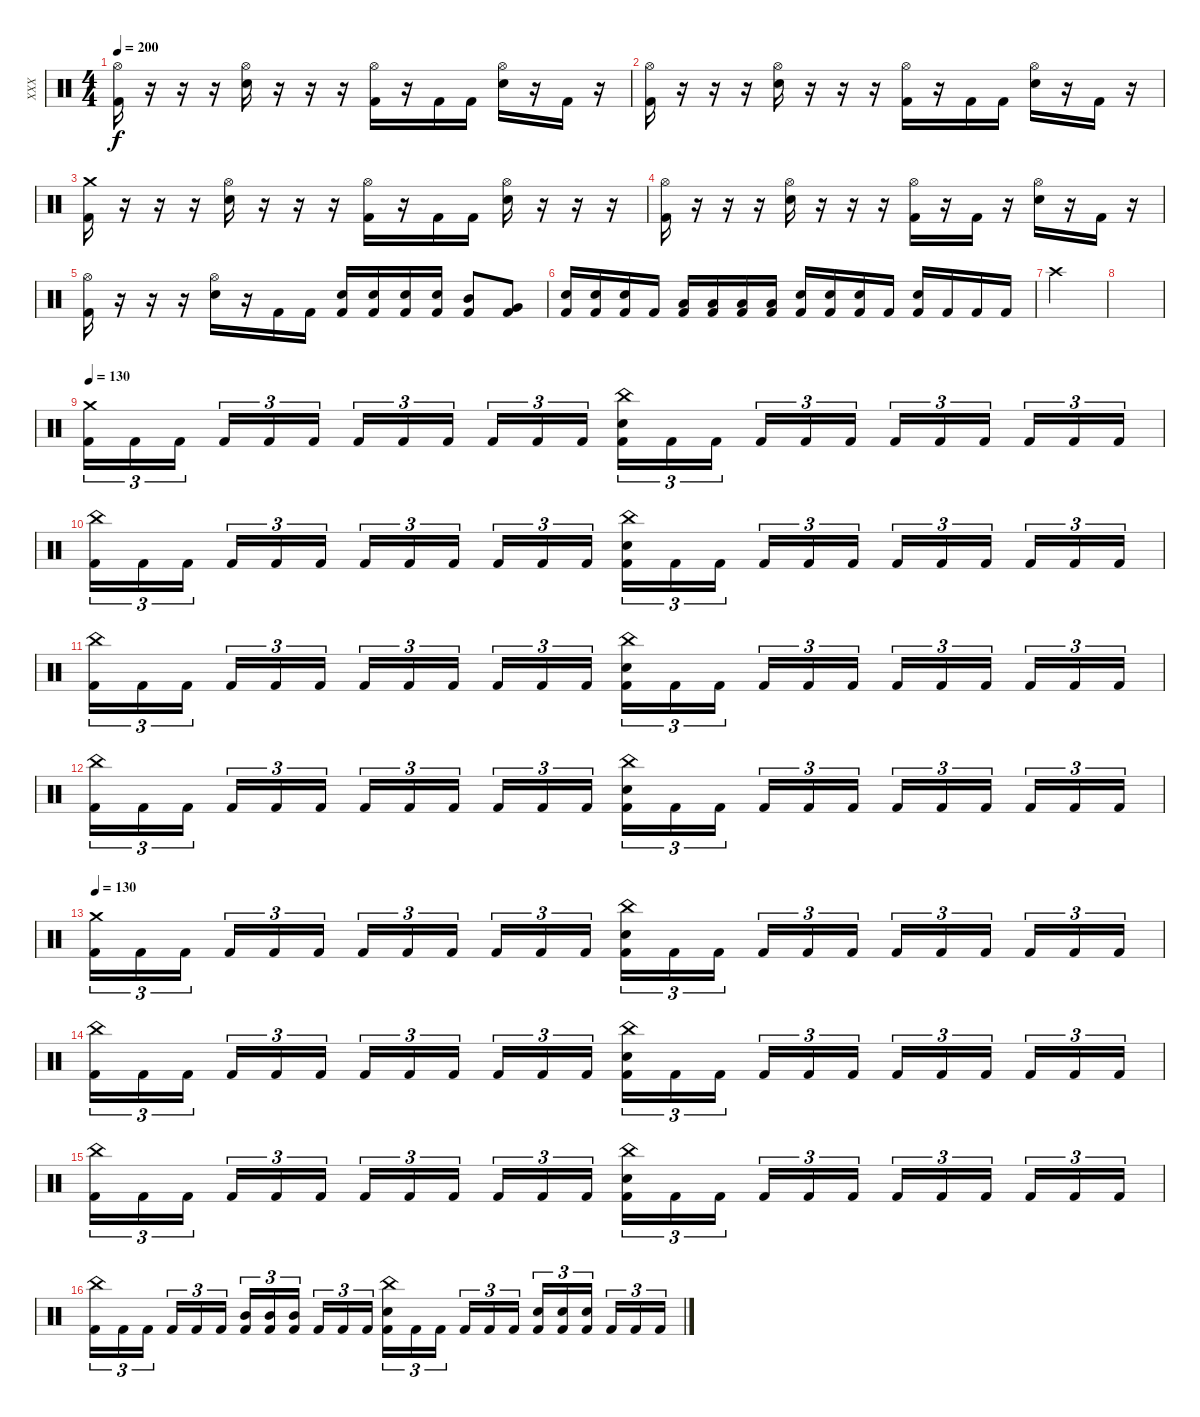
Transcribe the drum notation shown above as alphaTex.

\track ("XXX" "XXX") {instrument percussion}
\staff {score}
\articulation defaults
\ts (4 4)
\tempo 200
\clef neutral
\ks c
("Hi-Hat (open)" "Kick (hit) 2").16{dy f} r.16 r.16 r.16 ("Hi-Hat (open)" "Electric Snare (hit)").16 r.16 r.16 r.16 ("Hi-Hat (open)" "Kick (hit) 2").16 r.16 "Kick (hit) 2".16 "Kick (hit) 2".16 ("Hi-Hat (open)" "Electric Snare (hit)").16 r.16 "Kick (hit) 2".16 r.16 |
("Hi-Hat (open)" "Kick (hit) 2").16 r.16 r.16 r.16 ("Hi-Hat (open)" "Electric Snare (hit)").16 r.16 r.16 r.16 ("Hi-Hat (open)" "Kick (hit) 2").16 r.16 "Kick (hit) 2".16 "Kick (hit) 2".16 ("Hi-Hat (open)" "Electric Snare (hit)").16 r.16 "Kick (hit) 2".16 r.16 |
("Crash medium (hit)" "Kick (hit) 2").16 r.16 r.16 r.16 ("Hi-Hat (open)" "Electric Snare (hit)").16 r.16 r.16 r.16 ("Hi-Hat (open)" "Kick (hit) 2").16 r.16 "Kick (hit) 2".16 "Kick (hit) 2".16 ("Hi-Hat (open)" "Electric Snare (hit)").16 r.16 r.16 r.16 |
("Hi-Hat (open)" "Kick (hit) 2").16 r.16 r.16 r.16 ("Hi-Hat (open)" "Electric Snare (hit)").16 r.16 r.16 r.16 ("Hi-Hat (open)" "Kick (hit) 2").16 r.16 "Kick (hit) 2".16 r.16 ("Hi-Hat (open)" "Electric Snare (hit)").16 r.16 "Kick (hit) 2".16 r.16 |
("Hi-Hat (open)" "Kick (hit) 2").16 r.16 r.16 r.16 ("Hi-Hat (open)" "Electric Snare (hit)").16 r.16 "Kick (hit) 2".16 "Kick (hit) 2".16 ("Electric Snare (hit)" "Kick (hit) 2").16 ("Electric Snare (hit)" "Kick (hit) 2").16 ("Electric Snare (hit)" "Kick (hit) 2").16 ("Electric Snare (hit)" "Kick (hit) 2").16 ("Mid Tom (hit)" "Kick (hit) 2").8 ("Very Low Tom (hit)" "Kick (hit) 2").8 |
("Electric Snare (hit)" "Kick (hit) 2").16 ("Electric Snare (hit)" "Kick (hit) 2").16 ("Electric Snare (hit)" "Kick (hit) 2").16 "Kick (hit) 2".16 ("Low Tom (hit)" "Kick (hit) 2").16 ("Low Tom (hit)" "Kick (hit) 2").16 ("Low Tom (hit)" "Kick (hit) 2").16 ("Low Tom (hit)" "Kick (hit) 2").16 ("Electric Snare (hit)" "Kick (hit) 2").16 ("Electric Snare (hit)" "Kick (hit) 2").16 ("Electric Snare (hit)" "Kick (hit) 2").16 "Kick (hit) 2".16 ("Electric Snare (hit)" "Kick (hit) 2").16 "Kick (hit) 2".16 "Kick (hit) 2".16 "Kick (hit) 2".16 |
"Crash high (hit)".2 |
|
\tempo 130
("Crash medium (hit)" "Kick (hit) 2").16{tu (3 2)} "Kick (hit) 2".16{tu (3 2)} "Kick (hit) 2".16{tu (3 2) beam splitsecondary} "Kick (hit) 2".16{tu (3 2)} "Kick (hit) 2".16{tu (3 2)} "Kick (hit) 2".16{tu (3 2)} "Kick (hit) 2".16{tu (3 2)} "Kick (hit) 2".16{tu (3 2)} "Kick (hit) 2".16{tu (3 2) beam splitsecondary} "Kick (hit) 2".16{tu (3 2)} "Kick (hit) 2".16{tu (3 2)} "Kick (hit) 2".16{tu (3 2)} ("China (hit)" "Electric Snare (hit)" "Kick (hit) 2").16{tu (3 2)} "Kick (hit) 2".16{tu (3 2)} "Kick (hit) 2".16{tu (3 2) beam splitsecondary} "Kick (hit) 2".16{tu (3 2)} "Kick (hit) 2".16{tu (3 2)} "Kick (hit) 2".16{tu (3 2)} "Kick (hit) 2".16{tu (3 2)} "Kick (hit) 2".16{tu (3 2)} "Kick (hit) 2".16{tu (3 2) beam splitsecondary} "Kick (hit) 2".16{tu (3 2)} "Kick (hit) 2".16{tu (3 2)} "Kick (hit) 2".16{tu (3 2)} |
("China (hit)" "Kick (hit) 2").16{tu (3 2)} "Kick (hit) 2".16{tu (3 2)} "Kick (hit) 2".16{tu (3 2) beam splitsecondary} "Kick (hit) 2".16{tu (3 2)} "Kick (hit) 2".16{tu (3 2)} "Kick (hit) 2".16{tu (3 2)} "Kick (hit) 2".16{tu (3 2)} "Kick (hit) 2".16{tu (3 2)} "Kick (hit) 2".16{tu (3 2) beam splitsecondary} "Kick (hit) 2".16{tu (3 2)} "Kick (hit) 2".16{tu (3 2)} "Kick (hit) 2".16{tu (3 2)} ("China (hit)" "Electric Snare (hit)" "Kick (hit) 2").16{tu (3 2)} "Kick (hit) 2".16{tu (3 2)} "Kick (hit) 2".16{tu (3 2) beam splitsecondary} "Kick (hit) 2".16{tu (3 2)} "Kick (hit) 2".16{tu (3 2)} "Kick (hit) 2".16{tu (3 2)} "Kick (hit) 2".16{tu (3 2)} "Kick (hit) 2".16{tu (3 2)} "Kick (hit) 2".16{tu (3 2) beam splitsecondary} "Kick (hit) 2".16{tu (3 2)} "Kick (hit) 2".16{tu (3 2)} "Kick (hit) 2".16{tu (3 2)} |
("China (hit)" "Kick (hit) 2").16{tu (3 2)} "Kick (hit) 2".16{tu (3 2)} "Kick (hit) 2".16{tu (3 2) beam splitsecondary} "Kick (hit) 2".16{tu (3 2)} "Kick (hit) 2".16{tu (3 2)} "Kick (hit) 2".16{tu (3 2)} "Kick (hit) 2".16{tu (3 2)} "Kick (hit) 2".16{tu (3 2)} "Kick (hit) 2".16{tu (3 2) beam splitsecondary} "Kick (hit) 2".16{tu (3 2)} "Kick (hit) 2".16{tu (3 2)} "Kick (hit) 2".16{tu (3 2)} ("China (hit)" "Electric Snare (hit)" "Kick (hit) 2").16{tu (3 2)} "Kick (hit) 2".16{tu (3 2)} "Kick (hit) 2".16{tu (3 2) beam splitsecondary} "Kick (hit) 2".16{tu (3 2)} "Kick (hit) 2".16{tu (3 2)} "Kick (hit) 2".16{tu (3 2)} "Kick (hit) 2".16{tu (3 2)} "Kick (hit) 2".16{tu (3 2)} "Kick (hit) 2".16{tu (3 2) beam splitsecondary} "Kick (hit) 2".16{tu (3 2)} "Kick (hit) 2".16{tu (3 2)} "Kick (hit) 2".16{tu (3 2)} |
("China (hit)" "Kick (hit) 2").16{tu (3 2)} "Kick (hit) 2".16{tu (3 2)} "Kick (hit) 2".16{tu (3 2) beam splitsecondary} "Kick (hit) 2".16{tu (3 2)} "Kick (hit) 2".16{tu (3 2)} "Kick (hit) 2".16{tu (3 2)} "Kick (hit) 2".16{tu (3 2)} "Kick (hit) 2".16{tu (3 2)} "Kick (hit) 2".16{tu (3 2) beam splitsecondary} "Kick (hit) 2".16{tu (3 2)} "Kick (hit) 2".16{tu (3 2)} "Kick (hit) 2".16{tu (3 2)} ("China (hit)" "Electric Snare (hit)" "Kick (hit) 2").16{tu (3 2)} "Kick (hit) 2".16{tu (3 2)} "Kick (hit) 2".16{tu (3 2) beam splitsecondary} "Kick (hit) 2".16{tu (3 2)} "Kick (hit) 2".16{tu (3 2)} "Kick (hit) 2".16{tu (3 2)} "Kick (hit) 2".16{tu (3 2)} "Kick (hit) 2".16{tu (3 2)} "Kick (hit) 2".16{tu (3 2) beam splitsecondary} "Kick (hit) 2".16{tu (3 2)} "Kick (hit) 2".16{tu (3 2)} "Kick (hit) 2".16{tu (3 2)} |
\tempo 130
("Crash medium (hit)" "Kick (hit) 2").16{tu (3 2)} "Kick (hit) 2".16{tu (3 2)} "Kick (hit) 2".16{tu (3 2) beam splitsecondary} "Kick (hit) 2".16{tu (3 2)} "Kick (hit) 2".16{tu (3 2)} "Kick (hit) 2".16{tu (3 2)} "Kick (hit) 2".16{tu (3 2)} "Kick (hit) 2".16{tu (3 2)} "Kick (hit) 2".16{tu (3 2) beam splitsecondary} "Kick (hit) 2".16{tu (3 2)} "Kick (hit) 2".16{tu (3 2)} "Kick (hit) 2".16{tu (3 2)} ("China (hit)" "Electric Snare (hit)" "Kick (hit) 2").16{tu (3 2)} "Kick (hit) 2".16{tu (3 2)} "Kick (hit) 2".16{tu (3 2) beam splitsecondary} "Kick (hit) 2".16{tu (3 2)} "Kick (hit) 2".16{tu (3 2)} "Kick (hit) 2".16{tu (3 2)} "Kick (hit) 2".16{tu (3 2)} "Kick (hit) 2".16{tu (3 2)} "Kick (hit) 2".16{tu (3 2) beam splitsecondary} "Kick (hit) 2".16{tu (3 2)} "Kick (hit) 2".16{tu (3 2)} "Kick (hit) 2".16{tu (3 2)} |
("China (hit)" "Kick (hit) 2").16{tu (3 2)} "Kick (hit) 2".16{tu (3 2)} "Kick (hit) 2".16{tu (3 2) beam splitsecondary} "Kick (hit) 2".16{tu (3 2)} "Kick (hit) 2".16{tu (3 2)} "Kick (hit) 2".16{tu (3 2)} "Kick (hit) 2".16{tu (3 2)} "Kick (hit) 2".16{tu (3 2)} "Kick (hit) 2".16{tu (3 2) beam splitsecondary} "Kick (hit) 2".16{tu (3 2)} "Kick (hit) 2".16{tu (3 2)} "Kick (hit) 2".16{tu (3 2)} ("China (hit)" "Electric Snare (hit)" "Kick (hit) 2").16{tu (3 2)} "Kick (hit) 2".16{tu (3 2)} "Kick (hit) 2".16{tu (3 2) beam splitsecondary} "Kick (hit) 2".16{tu (3 2)} "Kick (hit) 2".16{tu (3 2)} "Kick (hit) 2".16{tu (3 2)} "Kick (hit) 2".16{tu (3 2)} "Kick (hit) 2".16{tu (3 2)} "Kick (hit) 2".16{tu (3 2) beam splitsecondary} "Kick (hit) 2".16{tu (3 2)} "Kick (hit) 2".16{tu (3 2)} "Kick (hit) 2".16{tu (3 2)} |
("China (hit)" "Kick (hit) 2").16{tu (3 2)} "Kick (hit) 2".16{tu (3 2)} "Kick (hit) 2".16{tu (3 2) beam splitsecondary} "Kick (hit) 2".16{tu (3 2)} "Kick (hit) 2".16{tu (3 2)} "Kick (hit) 2".16{tu (3 2)} "Kick (hit) 2".16{tu (3 2)} "Kick (hit) 2".16{tu (3 2)} "Kick (hit) 2".16{tu (3 2) beam splitsecondary} "Kick (hit) 2".16{tu (3 2)} "Kick (hit) 2".16{tu (3 2)} "Kick (hit) 2".16{tu (3 2)} ("China (hit)" "Electric Snare (hit)" "Kick (hit) 2").16{tu (3 2)} "Kick (hit) 2".16{tu (3 2)} "Kick (hit) 2".16{tu (3 2) beam splitsecondary} "Kick (hit) 2".16{tu (3 2)} "Kick (hit) 2".16{tu (3 2)} "Kick (hit) 2".16{tu (3 2)} "Kick (hit) 2".16{tu (3 2)} "Kick (hit) 2".16{tu (3 2)} "Kick (hit) 2".16{tu (3 2) beam splitsecondary} "Kick (hit) 2".16{tu (3 2)} "Kick (hit) 2".16{tu (3 2)} "Kick (hit) 2".16{tu (3 2)} |
("China (hit)" "Kick (hit) 2").16{tu (3 2)} "Kick (hit) 2".16{tu (3 2)} "Kick (hit) 2".16{tu (3 2) beam splitsecondary} "Kick (hit) 2".16{tu (3 2)} "Kick (hit) 2".16{tu (3 2)} "Kick (hit) 2".16{tu (3 2)} ("Mid Tom (hit)" "Kick (hit) 2").16{tu (3 2)} ("Mid Tom (hit)" "Kick (hit) 2").16{tu (3 2)} ("Mid Tom (hit)" "Kick (hit) 2").16{tu (3 2) beam splitsecondary} "Kick (hit) 2".16{tu (3 2)} "Kick (hit) 2".16{tu (3 2)} "Kick (hit) 2".16{tu (3 2)} ("China (hit)" "Electric Snare (hit)" "Kick (hit) 2").16{tu (3 2)} "Kick (hit) 2".16{tu (3 2)} "Kick (hit) 2".16{tu (3 2) beam splitsecondary} "Kick (hit) 2".16{tu (3 2)} "Kick (hit) 2".16{tu (3 2)} "Kick (hit) 2".16{tu (3 2)} ("Electric Snare (hit)" "Kick (hit) 2").16{tu (3 2)} ("Electric Snare (hit)" "Kick (hit) 2").16{tu (3 2)} ("Electric Snare (hit)" "Kick (hit) 2").16{tu (3 2) beam splitsecondary} "Kick (hit) 2".16{tu (3 2)} "Kick (hit) 2".16{tu (3 2)} "Kick (hit) 2".16{tu (3 2)}
